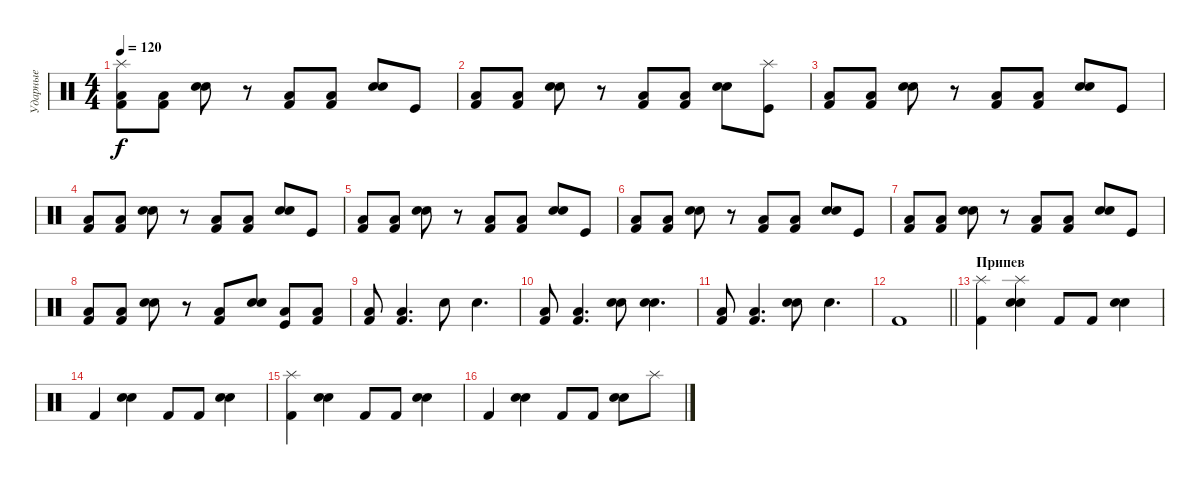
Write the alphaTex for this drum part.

\track ("Ударные" "Ударные") {instrument percussion}
\staff {score}
\articulation defaults
\ts (4 4)
\tempo 120
\clef neutral
\ks c
("Splash (hit)" "Low Floor Tom (hit)" "Kick (hit) 2").8{dy f} ("Low Floor Tom (hit)" "Kick (hit) 2").8 ("Electric Snare (hit)" "Snare (hit) 2").8 r.8 ("Low Floor Tom (hit)" "Kick (hit) 2").8 ("Low Floor Tom (hit)" "Kick (hit) 2").8 ("Electric Snare (hit)" "Snare (hit) 2").8 "Kick (hit)".8 |
("Low Floor Tom (hit)" "Kick (hit) 2").8 ("Low Floor Tom (hit)" "Kick (hit) 2").8 ("Electric Snare (hit)" "Snare (hit) 2").8 r.8 ("Low Floor Tom (hit)" "Kick (hit) 2").8 ("Low Floor Tom (hit)" "Kick (hit) 2").8 ("Electric Snare (hit)" "Snare (hit) 2").8 ("Splash (hit)" "Kick (hit)").8 |
("Low Floor Tom (hit)" "Kick (hit) 2").8 ("Low Floor Tom (hit)" "Kick (hit) 2").8 ("Electric Snare (hit)" "Snare (hit) 2").8 r.8 ("Low Floor Tom (hit)" "Kick (hit) 2").8 ("Low Floor Tom (hit)" "Kick (hit) 2").8 ("Electric Snare (hit)" "Snare (hit) 2").8 "Kick (hit)".8 |
("Low Floor Tom (hit)" "Kick (hit) 2").8 ("Low Floor Tom (hit)" "Kick (hit) 2").8 ("Electric Snare (hit)" "Snare (hit) 2").8 r.8 ("Low Floor Tom (hit)" "Kick (hit) 2").8 ("Low Floor Tom (hit)" "Kick (hit) 2").8 ("Electric Snare (hit)" "Snare (hit) 2").8 "Kick (hit)".8 |
("Low Floor Tom (hit)" "Kick (hit) 2").8 ("Low Floor Tom (hit)" "Kick (hit) 2").8 ("Electric Snare (hit)" "Snare (hit) 2").8 r.8 ("Low Floor Tom (hit)" "Kick (hit) 2").8 ("Low Floor Tom (hit)" "Kick (hit) 2").8 ("Electric Snare (hit)" "Snare (hit) 2").8 "Kick (hit)".8 |
("Low Floor Tom (hit)" "Kick (hit) 2").8 ("Low Floor Tom (hit)" "Kick (hit) 2").8 ("Electric Snare (hit)" "Snare (hit) 2").8 r.8 ("Low Floor Tom (hit)" "Kick (hit) 2").8 ("Low Floor Tom (hit)" "Kick (hit) 2").8 ("Electric Snare (hit)" "Snare (hit) 2").8 "Kick (hit)".8 |
("Low Floor Tom (hit)" "Kick (hit) 2").8 ("Low Floor Tom (hit)" "Kick (hit) 2").8 ("Electric Snare (hit)" "Snare (hit) 2").8 r.8 ("Low Floor Tom (hit)" "Kick (hit) 2").8 ("Low Floor Tom (hit)" "Kick (hit) 2").8 ("Electric Snare (hit)" "Snare (hit) 2").8 "Kick (hit)".8 |
("Low Floor Tom (hit)" "Kick (hit) 2").8 ("Low Floor Tom (hit)" "Kick (hit) 2").8 ("Electric Snare (hit)" "Snare (hit) 2").8 r.8 ("Low Floor Tom (hit)" "Kick (hit) 2").8 ("Electric Snare (hit)" "Snare (hit) 2").8 ("Low Floor Tom (hit)" "Kick (hit)").8 ("Low Floor Tom (hit)" "Kick (hit) 2").8 |
("Low Floor Tom (hit)" "Kick (hit) 2").8 ("Low Floor Tom (hit)" "Kick (hit) 2").4{d} "Electric Snare (hit)".8 "Electric Snare (hit)".4{d} |
("Low Floor Tom (hit)" "Kick (hit) 2").8 ("Low Floor Tom (hit)" "Kick (hit) 2").4{d} ("Electric Snare (hit)" "Snare (hit) 2").8 ("Electric Snare (hit)" "Snare (hit) 2").4{d} |
("Low Floor Tom (hit)" "Kick (hit) 2").8 ("Low Floor Tom (hit)" "Kick (hit) 2").4{d} ("Electric Snare (hit)" "Snare (hit) 2").8 "Electric Snare (hit)".4{d} |
\barLineRight lightlight "Kick (hit) 2".1
|
\section ("" "Припев")
("Splash (hit)" "Kick (hit) 2").4 ("Splash (hit)" "Electric Snare (hit)" "Snare (hit) 2").4 "Kick (hit) 2".8 "Kick (hit) 2".8 ("Electric Snare (hit)" "Snare (hit) 2").4 |
"Kick (hit) 2".4 ("Electric Snare (hit)" "Snare (hit) 2").4 "Kick (hit) 2".8 "Kick (hit) 2".8 ("Electric Snare (hit)" "Snare (hit) 2").4 |
("Splash (hit)" "Kick (hit) 2").4 ("Electric Snare (hit)" "Snare (hit) 2").4 "Kick (hit) 2".8 "Kick (hit) 2".8 ("Electric Snare (hit)" "Snare (hit) 2").4 |
"Kick (hit) 2".4 ("Electric Snare (hit)" "Snare (hit) 2").4 "Kick (hit) 2".8 "Kick (hit) 2".8 ("Electric Snare (hit)" "Snare (hit) 2").8 "Splash (hit)".8
